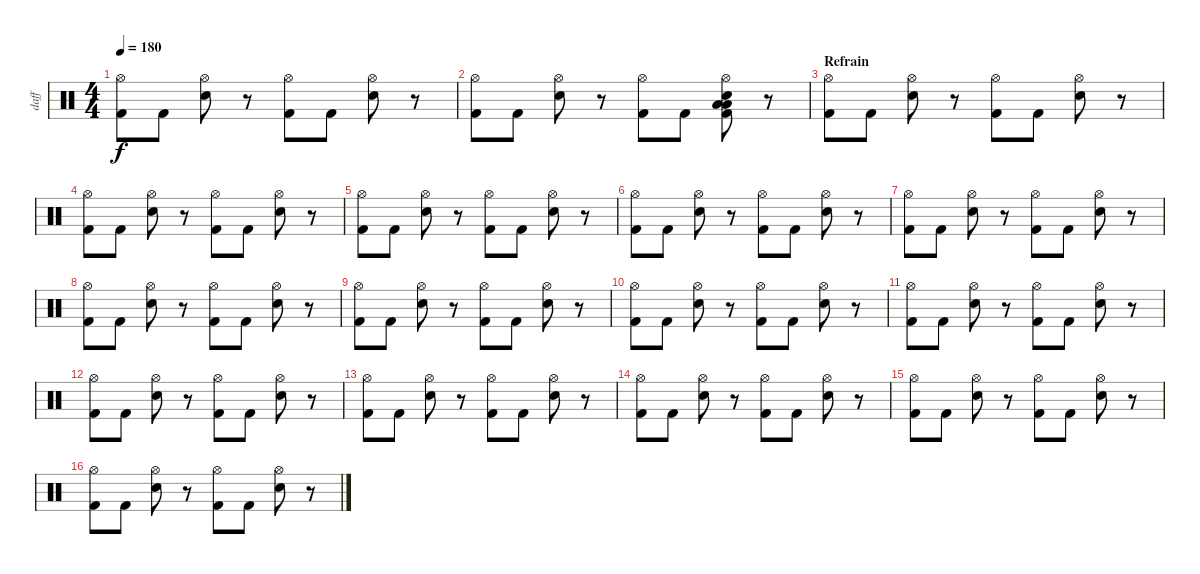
\track ("daff" "daff") {instrument percussion}
\staff {score}
\articulation defaults
\ts (4 4)
\tempo 180
\clef neutral
\ks c
("Hi-Hat (open)" "Kick (hit) 2").8{dy f} "Kick (hit) 2".8 ("Hi-Hat (open)" "Snare (hit) 2").8 r.8 ("Hi-Hat (open)" "Kick (hit) 2").8 "Kick (hit) 2".8 ("Hi-Hat (open)" "Snare (hit) 2").8 r.8 |
("Hi-Hat (open)" "Kick (hit) 2").8 "Kick (hit) 2".8 ("Hi-Hat (open)" "Snare (hit) 2").8 r.8 ("Hi-Hat (open)" "Kick (hit) 2").8 "Kick (hit) 2".8 ("Hi-Hat (open)" "Snare (hit) 2" "Low Floor Tom (hit)" "Low Tom (hit)" "Kick (hit) 2").8 r.8 |
\section ("" "Refrain")
("Hi-Hat (open)" "Kick (hit) 2").8 "Kick (hit) 2".8 ("Hi-Hat (open)" "Snare (hit) 2").8 r.8 ("Hi-Hat (open)" "Kick (hit) 2").8 "Kick (hit) 2".8 ("Hi-Hat (open)" "Snare (hit) 2").8 r.8 |
("Hi-Hat (open)" "Kick (hit) 2").8 "Kick (hit) 2".8 ("Hi-Hat (open)" "Snare (hit) 2").8 r.8 ("Hi-Hat (open)" "Kick (hit) 2").8 "Kick (hit) 2".8 ("Hi-Hat (open)" "Snare (hit) 2").8 r.8 |
("Hi-Hat (open)" "Kick (hit) 2").8 "Kick (hit) 2".8 ("Hi-Hat (open)" "Snare (hit) 2").8 r.8 ("Hi-Hat (open)" "Kick (hit) 2").8 "Kick (hit) 2".8 ("Hi-Hat (open)" "Snare (hit) 2").8 r.8 |
("Hi-Hat (open)" "Kick (hit) 2").8 "Kick (hit) 2".8 ("Hi-Hat (open)" "Snare (hit) 2").8 r.8 ("Hi-Hat (open)" "Kick (hit) 2").8 "Kick (hit) 2".8 ("Hi-Hat (open)" "Snare (hit) 2").8 r.8 |
("Hi-Hat (open)" "Kick (hit) 2").8 "Kick (hit) 2".8 ("Hi-Hat (open)" "Snare (hit) 2").8 r.8 ("Hi-Hat (open)" "Kick (hit) 2").8 "Kick (hit) 2".8 ("Hi-Hat (open)" "Snare (hit) 2").8 r.8 |
("Hi-Hat (open)" "Kick (hit) 2").8 "Kick (hit) 2".8 ("Hi-Hat (open)" "Snare (hit) 2").8 r.8 ("Hi-Hat (open)" "Kick (hit) 2").8 "Kick (hit) 2".8 ("Hi-Hat (open)" "Snare (hit) 2").8 r.8 |
("Hi-Hat (open)" "Kick (hit) 2").8 "Kick (hit) 2".8 ("Hi-Hat (open)" "Snare (hit) 2").8 r.8 ("Hi-Hat (open)" "Kick (hit) 2").8 "Kick (hit) 2".8 ("Hi-Hat (open)" "Snare (hit) 2").8 r.8 |
("Hi-Hat (open)" "Kick (hit) 2").8 "Kick (hit) 2".8 ("Hi-Hat (open)" "Snare (hit) 2").8 r.8 ("Hi-Hat (open)" "Kick (hit) 2").8 "Kick (hit) 2".8 ("Hi-Hat (open)" "Snare (hit) 2").8 r.8 |
("Hi-Hat (open)" "Kick (hit) 2").8 "Kick (hit) 2".8 ("Hi-Hat (open)" "Snare (hit) 2").8 r.8 ("Hi-Hat (open)" "Kick (hit) 2").8 "Kick (hit) 2".8 ("Hi-Hat (open)" "Snare (hit) 2").8 r.8 |
("Hi-Hat (open)" "Kick (hit) 2").8 "Kick (hit) 2".8 ("Hi-Hat (open)" "Snare (hit) 2").8 r.8 ("Hi-Hat (open)" "Kick (hit) 2").8 "Kick (hit) 2".8 ("Hi-Hat (open)" "Snare (hit) 2").8 r.8 |
("Hi-Hat (open)" "Kick (hit) 2").8 "Kick (hit) 2".8 ("Hi-Hat (open)" "Snare (hit) 2").8 r.8 ("Hi-Hat (open)" "Kick (hit) 2").8 "Kick (hit) 2".8 ("Hi-Hat (open)" "Snare (hit) 2").8 r.8 |
("Hi-Hat (open)" "Kick (hit) 2").8 "Kick (hit) 2".8 ("Hi-Hat (open)" "Snare (hit) 2").8 r.8 ("Hi-Hat (open)" "Kick (hit) 2").8 "Kick (hit) 2".8 ("Hi-Hat (open)" "Snare (hit) 2").8 r.8 |
("Hi-Hat (open)" "Kick (hit) 2").8 "Kick (hit) 2".8 ("Hi-Hat (open)" "Snare (hit) 2").8 r.8 ("Hi-Hat (open)" "Kick (hit) 2").8 "Kick (hit) 2".8 ("Hi-Hat (open)" "Snare (hit) 2").8 r.8 |
("Hi-Hat (open)" "Kick (hit) 2").8 "Kick (hit) 2".8 ("Hi-Hat (open)" "Snare (hit) 2").8 r.8 ("Hi-Hat (open)" "Kick (hit) 2").8 "Kick (hit) 2".8 ("Hi-Hat (open)" "Snare (hit) 2").8 r.8
